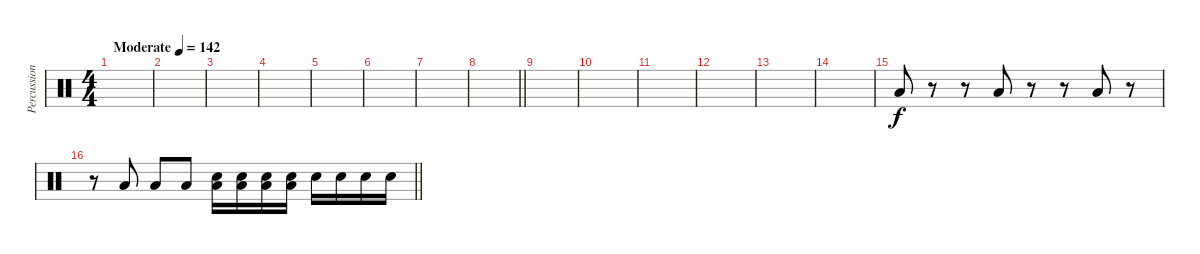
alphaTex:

\track ("Percussion" "Percussion") {instrument percussion}
\staff {score}
\articulation defaults
\ts (4 4)
\tempo (142 "Moderate")
\clef neutral
\ks c
|
|
|
|
|
|
|
\barLineRight lightlight
|
|
|
|
|
|
|
"Low Tom (hit)".8 r.8 r.8 "Low Tom (hit)".8 r.8 r.8 "Low Tom (hit)".8 r.8 |
\barLineRight lightlight
r.8 "Low Tom (hit)".8 "Low Tom (hit)".8 "Low Tom (hit)".8 ("Low Tom (hit)" "Snare (hit) 2").16 ("Low Tom (hit)" "Snare (hit) 2").16 ("Low Tom (hit)" "Snare (hit) 2").16 ("Low Tom (hit)" "Snare (hit) 2").16 "Snare (hit) 2".16 "Snare (hit) 2".16 "Snare (hit) 2".16 "Snare (hit) 2".16
